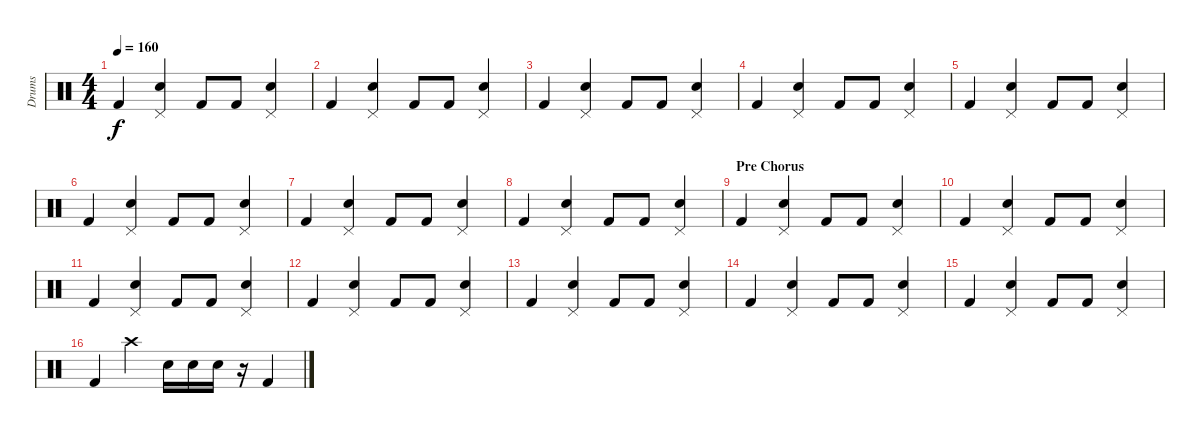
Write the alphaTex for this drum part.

\track ("Drums" "Drums") {instrument percussion}
\staff {score}
\articulation defaults
\ts (4 4)
\tempo 160
\clef neutral
\ks c "Kick (hit) 2".4{dy f}
("Pedal Hi-Hat (hit)" "Electric Snare (hit)").4 "Kick (hit) 2".8 "Kick (hit) 2".8 ("Pedal Hi-Hat (hit)" "Electric Snare (hit)").4 |
"Kick (hit) 2".4 ("Pedal Hi-Hat (hit)" "Electric Snare (hit)").4 "Kick (hit) 2".8 "Kick (hit) 2".8 ("Pedal Hi-Hat (hit)" "Electric Snare (hit)").4 |
"Kick (hit) 2".4 ("Pedal Hi-Hat (hit)" "Electric Snare (hit)").4 "Kick (hit) 2".8 "Kick (hit) 2".8 ("Pedal Hi-Hat (hit)" "Electric Snare (hit)").4 |
"Kick (hit) 2".4 ("Pedal Hi-Hat (hit)" "Electric Snare (hit)").4 "Kick (hit) 2".8 "Kick (hit) 2".8 ("Pedal Hi-Hat (hit)" "Electric Snare (hit)").4 |
"Kick (hit) 2".4 ("Pedal Hi-Hat (hit)" "Electric Snare (hit)").4 "Kick (hit) 2".8 "Kick (hit) 2".8 ("Pedal Hi-Hat (hit)" "Electric Snare (hit)").4 |
"Kick (hit) 2".4 ("Pedal Hi-Hat (hit)" "Electric Snare (hit)").4 "Kick (hit) 2".8 "Kick (hit) 2".8 ("Pedal Hi-Hat (hit)" "Electric Snare (hit)").4 |
"Kick (hit) 2".4 ("Pedal Hi-Hat (hit)" "Electric Snare (hit)").4 "Kick (hit) 2".8 "Kick (hit) 2".8 ("Pedal Hi-Hat (hit)" "Electric Snare (hit)").4 |
"Kick (hit) 2".4 ("Pedal Hi-Hat (hit)" "Electric Snare (hit)").4 "Kick (hit) 2".8 "Kick (hit) 2".8 ("Pedal Hi-Hat (hit)" "Electric Snare (hit)").4 |
\section ("" "Pre Chorus")
"Kick (hit) 2".4 ("Pedal Hi-Hat (hit)" "Electric Snare (hit)").4 "Kick (hit) 2".8 "Kick (hit) 2".8 ("Pedal Hi-Hat (hit)" "Electric Snare (hit)").4 |
"Kick (hit) 2".4 ("Pedal Hi-Hat (hit)" "Electric Snare (hit)").4 "Kick (hit) 2".8 "Kick (hit) 2".8 ("Pedal Hi-Hat (hit)" "Electric Snare (hit)").4 |
"Kick (hit) 2".4 ("Pedal Hi-Hat (hit)" "Electric Snare (hit)").4 "Kick (hit) 2".8 "Kick (hit) 2".8 ("Pedal Hi-Hat (hit)" "Electric Snare (hit)").4 |
"Kick (hit) 2".4 ("Pedal Hi-Hat (hit)" "Electric Snare (hit)").4 "Kick (hit) 2".8 "Kick (hit) 2".8 ("Pedal Hi-Hat (hit)" "Electric Snare (hit)").4 |
"Kick (hit) 2".4 ("Pedal Hi-Hat (hit)" "Electric Snare (hit)").4 "Kick (hit) 2".8 "Kick (hit) 2".8 ("Pedal Hi-Hat (hit)" "Electric Snare (hit)").4 |
"Kick (hit) 2".4 ("Pedal Hi-Hat (hit)" "Electric Snare (hit)").4 "Kick (hit) 2".8 "Kick (hit) 2".8 ("Pedal Hi-Hat (hit)" "Electric Snare (hit)").4 |
"Kick (hit) 2".4 ("Pedal Hi-Hat (hit)" "Electric Snare (hit)").4 "Kick (hit) 2".8 "Kick (hit) 2".8 ("Pedal Hi-Hat (hit)" "Electric Snare (hit)").4 |
"Kick (hit) 2".4 "Crash high (hit)".4 "Snare (hit) 2".16 "Snare (hit) 2".16 "Snare (hit) 2".16 r.16 "Kick (hit) 2".4
